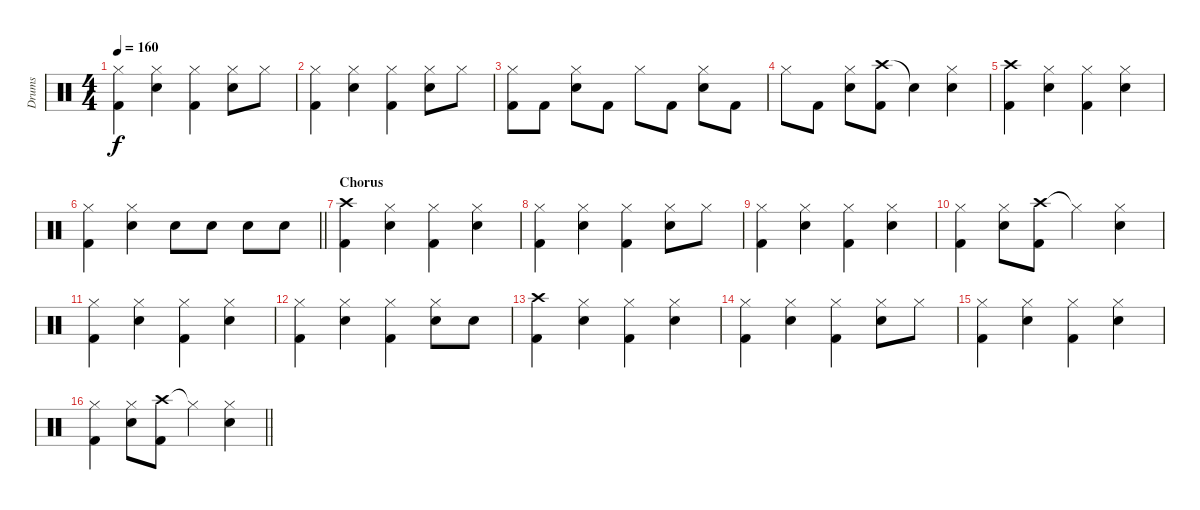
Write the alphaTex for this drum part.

\track ("Drums" "Drums") {instrument percussion}
\staff {score}
\articulation defaults
\ts (4 4)
\tempo 160
\clef neutral
\ks c
("Hi-Hat (closed)" "Kick (hit) 2").4{dy f} ("Hi-Hat (closed)" "Snare (hit) 2").4 ("Hi-Hat (closed)" "Kick (hit) 2").4 ("Hi-Hat (closed)" "Snare (hit) 2").8 "Hi-Hat (closed)".8 |
("Hi-Hat (closed)" "Kick (hit) 2").4 ("Hi-Hat (closed)" "Snare (hit) 2").4 ("Hi-Hat (closed)" "Kick (hit) 2").4 ("Hi-Hat (closed)" "Snare (hit) 2").8 "Hi-Hat (closed)".8 |
("Hi-Hat (closed)" "Kick (hit) 2").8 "Kick (hit) 2".8 ("Hi-Hat (closed)" "Snare (hit) 2").8 "Kick (hit) 2".8 "Hi-Hat (closed)".8 "Kick (hit) 2".8 ("Hi-Hat (closed)" "Snare (hit) 2").8 "Kick (hit) 2".8 |
"Hi-Hat (closed)".8 "Kick (hit) 2".8 ("Hi-Hat (closed)" "Snare (hit) 2").8 ("Crash high (hit)" "Kick (hit) 2").8 "Snare (hit)"{t}.4 ("Hi-Hat (closed)" "Snare (hit) 2").4 |
("Crash high (hit)" "Kick (hit) 2").4 ("Hi-Hat (closed)" "Snare (hit) 2").4 ("Hi-Hat (closed)" "Kick (hit) 2").4 ("Hi-Hat (closed)" "Snare (hit) 2").4 |
\barLineRight lightlight
("Hi-Hat (closed)" "Kick (hit) 2").4 ("Hi-Hat (closed)" "Snare (hit) 2").4 "Snare (hit) 2".8 "Snare (hit) 2".8 "Snare (hit) 2".8 "Snare (hit) 2".8 |
\section ("" "Chorus")
("Crash high (hit)" "Kick (hit) 2").4 ("Hi-Hat (closed)" "Snare (hit) 2").4 ("Hi-Hat (closed)" "Kick (hit) 2").4 ("Hi-Hat (closed)" "Snare (hit) 2").4 |
("Hi-Hat (closed)" "Kick (hit) 2").4 ("Hi-Hat (closed)" "Snare (hit) 2").4 ("Hi-Hat (closed)" "Kick (hit) 2").4 ("Hi-Hat (closed)" "Snare (hit) 2").8 "Hi-Hat (closed)".8 |
("Hi-Hat (closed)" "Kick (hit) 2").4 ("Hi-Hat (closed)" "Snare (hit) 2").4 ("Hi-Hat (closed)" "Kick (hit) 2").4 ("Hi-Hat (closed)" "Snare (hit) 2").4 |
("Hi-Hat (closed)" "Kick (hit) 2").4 ("Hi-Hat (closed)" "Snare (hit) 2").8 ("Crash high (hit)" "Kick (hit) 2").8 "Hi-Hat (closed)"{t}.4 ("Hi-Hat (closed)" "Snare (hit) 2").4 |
("Hi-Hat (closed)" "Kick (hit) 2").4 ("Hi-Hat (closed)" "Snare (hit) 2").4 ("Hi-Hat (closed)" "Kick (hit) 2").4 ("Hi-Hat (closed)" "Snare (hit) 2").4 |
("Hi-Hat (closed)" "Kick (hit) 2").4 ("Hi-Hat (closed)" "Snare (hit) 2").4 ("Hi-Hat (closed)" "Kick (hit) 2").4 ("Hi-Hat (closed)" "Snare (hit) 2").8 "Snare (hit) 2".8 |
("Crash high (hit)" "Kick (hit) 2").4 ("Hi-Hat (closed)" "Snare (hit) 2").4 ("Hi-Hat (closed)" "Kick (hit) 2").4 ("Hi-Hat (closed)" "Snare (hit) 2").4 |
("Hi-Hat (closed)" "Kick (hit) 2").4 ("Hi-Hat (closed)" "Snare (hit) 2").4 ("Hi-Hat (closed)" "Kick (hit) 2").4 ("Hi-Hat (closed)" "Snare (hit) 2").8 "Hi-Hat (closed)".8 |
("Hi-Hat (closed)" "Kick (hit) 2").4 ("Hi-Hat (closed)" "Snare (hit) 2").4 ("Hi-Hat (closed)" "Kick (hit) 2").4 ("Hi-Hat (closed)" "Snare (hit) 2").4 |
\barLineRight lightlight
("Hi-Hat (closed)" "Kick (hit) 2").4 ("Hi-Hat (closed)" "Snare (hit) 2").8 ("Crash high (hit)" "Kick (hit) 2").8 "Hi-Hat (closed)"{t}.4 ("Hi-Hat (closed)" "Snare (hit) 2").4
